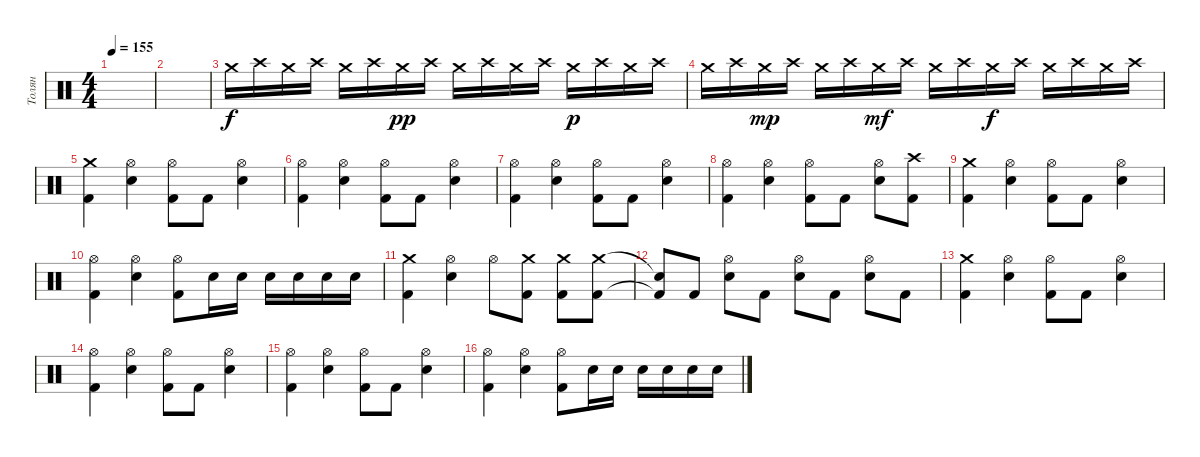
\track ("Толян" "Толян") {instrument percussion}
\staff {score}
\articulation defaults
\ts (4 4)
\tempo 155
\clef neutral
\ks c
|
|
"Crash medium (hit)".16 "Crash high (hit)".16 "Crash medium (hit)".16 "Crash high (hit)".16 "Crash medium (hit)".16 "Crash high (hit)".16 "Crash medium (hit)".16{dy pp} "Crash high (hit)".16 "Crash medium (hit)".16 "Crash high (hit)".16 "Crash medium (hit)".16 "Crash high (hit)".16 "Crash medium (hit)".16{dy p} "Crash high (hit)".16 "Crash medium (hit)".16 "Crash high (hit)".16 |
"Crash medium (hit)".16 "Crash high (hit)".16 "Crash medium (hit)".16{dy mp} "Crash high (hit)".16 "Crash medium (hit)".16 "Crash high (hit)".16 "Crash medium (hit)".16{dy mf} "Crash high (hit)".16 "Crash medium (hit)".16 "Crash high (hit)".16 "Crash medium (hit)".16{dy f} "Crash high (hit)".16 "Crash medium (hit)".16 "Crash high (hit)".16 "Crash medium (hit)".16 "Crash high (hit)".16 |
("Kick (hit) 2" "Crash medium (hit)").4 ("Electric Snare (hit)" "Hi-Hat (open)").4 ("Kick (hit) 2" "Hi-Hat (open)").8 "Kick (hit) 2".8 ("Electric Snare (hit)" "Hi-Hat (open)").4 |
("Kick (hit) 2" "Hi-Hat (open)").4 ("Electric Snare (hit)" "Hi-Hat (open)").4 ("Kick (hit) 2" "Hi-Hat (open)").8 "Kick (hit) 2".8 ("Electric Snare (hit)" "Hi-Hat (open)").4 |
("Kick (hit) 2" "Hi-Hat (open)").4 ("Electric Snare (hit)" "Hi-Hat (open)").4 ("Kick (hit) 2" "Hi-Hat (open)").8 "Kick (hit) 2".8 ("Electric Snare (hit)" "Hi-Hat (open)").4 |
("Kick (hit) 2" "Hi-Hat (open)").4 ("Electric Snare (hit)" "Hi-Hat (open)").4 ("Kick (hit) 2" "Hi-Hat (open)").8 "Kick (hit) 2".8 ("Electric Snare (hit)" "Hi-Hat (open)").8 ("Kick (hit) 2" "Crash high (hit)").8 |
("Kick (hit) 2" "Crash medium (hit)").4 ("Electric Snare (hit)" "Hi-Hat (open)").4 ("Kick (hit) 2" "Hi-Hat (open)").8 "Kick (hit) 2".8 ("Electric Snare (hit)" "Hi-Hat (open)").4 |
("Kick (hit) 2" "Hi-Hat (open)").4 ("Electric Snare (hit)" "Hi-Hat (open)").4 ("Kick (hit) 2" "Hi-Hat (open)").8 "Electric Snare (hit)".16 "Electric Snare (hit)".16 "Electric Snare (hit)".16 "Electric Snare (hit)".16 "Electric Snare (hit)".16 "Electric Snare (hit)".16 |
("Kick (hit) 2" "Crash medium (hit)").4 ("Electric Snare (hit)" "Hi-Hat (open)").4 "Hi-Hat (open)".8 ("Kick (hit) 2" "Crash medium (hit)").8 ("Kick (hit) 2" "Crash medium (hit)").8 ("Kick (hit) 2" "Crash medium (hit)").8 |
("Kick (hit) 2"{t} "Snare (hit)"{t}).8 "Kick (hit) 2".8 ("Electric Snare (hit)" "Hi-Hat (open)").8 "Kick (hit) 2".8 ("Electric Snare (hit)" "Hi-Hat (open)").8 "Kick (hit) 2".8 ("Electric Snare (hit)" "Hi-Hat (open)").8 "Kick (hit) 2".8 |
("Kick (hit) 2" "Crash medium (hit)").4 ("Electric Snare (hit)" "Hi-Hat (open)").4 ("Kick (hit) 2" "Hi-Hat (open)").8 "Kick (hit) 2".8 ("Electric Snare (hit)" "Hi-Hat (open)").4 |
("Kick (hit) 2" "Hi-Hat (open)").4 ("Electric Snare (hit)" "Hi-Hat (open)").4 ("Kick (hit) 2" "Hi-Hat (open)").8 "Kick (hit) 2".8 ("Electric Snare (hit)" "Hi-Hat (open)").4 |
("Kick (hit) 2" "Hi-Hat (open)").4 ("Electric Snare (hit)" "Hi-Hat (open)").4 ("Kick (hit) 2" "Hi-Hat (open)").8 "Kick (hit) 2".8 ("Electric Snare (hit)" "Hi-Hat (open)").4 |
("Kick (hit) 2" "Hi-Hat (open)").4 ("Electric Snare (hit)" "Hi-Hat (open)").4 ("Kick (hit) 2" "Hi-Hat (open)").8 "Electric Snare (hit)".16 "Electric Snare (hit)".16 "Electric Snare (hit)".16 "Electric Snare (hit)".16 "Electric Snare (hit)".16 "Electric Snare (hit)".16
